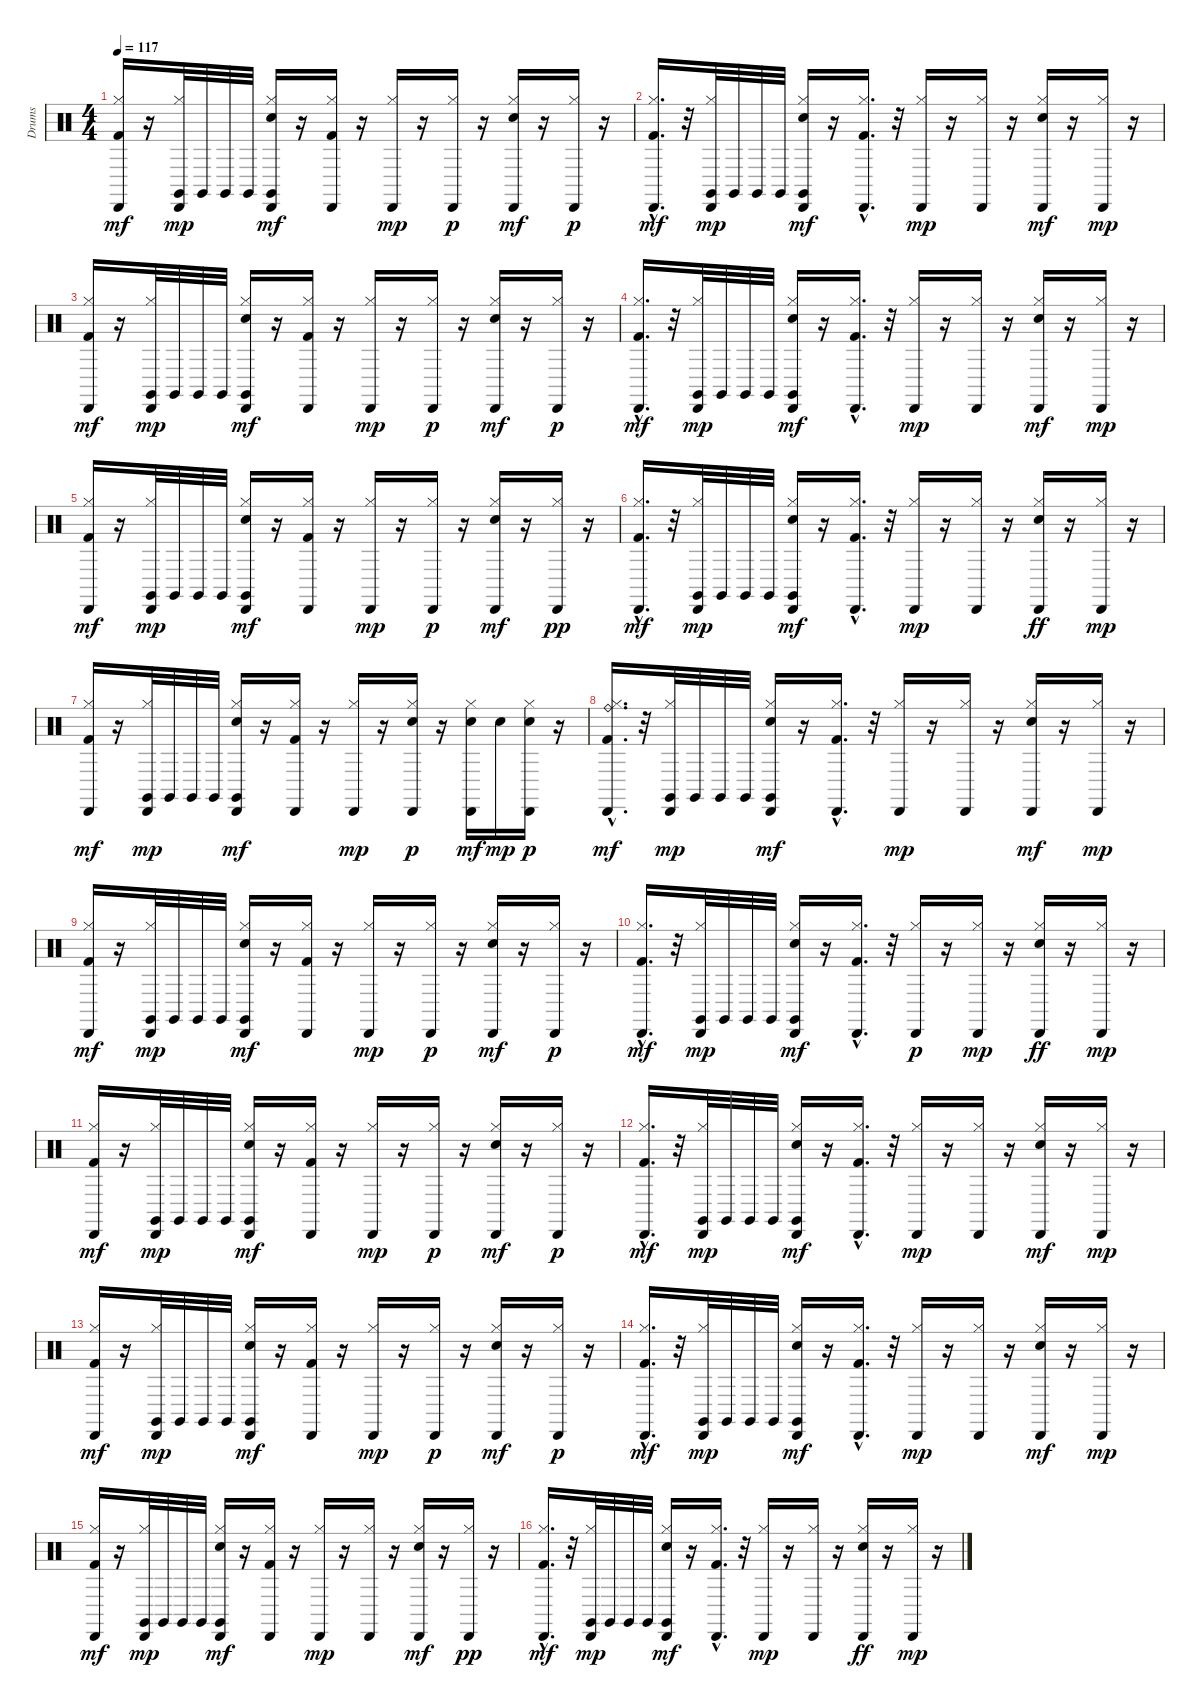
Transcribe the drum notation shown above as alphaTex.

\track ("Drums" "Drums") {instrument percussion}
\staff {score}
\articulation defaults
\ts (4 4)
\tempo 117
\clef neutral
\ks c
("Kick (hit) 2" "Hi-Hat (closed)" "Cabasa (hit)").16{dy mf} r.16 ("Hi-Hat (closed)" "Cabasa (hit)" "Claves (hit)").32{dy mp} "Claves (hit)".32 "Claves (hit)".32 "Claves (hit)".32 ("Electric Snare (hit)" "Hi-Hat (closed)" "Cabasa (hit)" "Claves (hit)").16{dy mf} r.16 ("Kick (hit) 2" "Hi-Hat (closed)" "Cabasa (hit)").16 r.16 ("Hi-Hat (closed)" "Cabasa (hit)").16{dy mp} r.16 ("Hi-Hat (closed)" "Cabasa (hit)").16{dy p} r.16 ("Electric Snare (hit)" "Hi-Hat (closed)" "Cabasa (hit)").16{dy mf} r.16 ("Hi-Hat (closed)" "Cabasa (hit)").16{dy p} r.16 |
("Kick (hit) 2"{hac} "Hi-Hat (closed)" "Cabasa (hit)").16{d dy mf} r.32 ("Hi-Hat (closed)" "Cabasa (hit)" "Claves (hit)").32{dy mp} "Claves (hit)".32 "Claves (hit)".32 "Claves (hit)".32 ("Electric Snare (hit)" "Hi-Hat (closed)" "Cabasa (hit)" "Claves (hit)").16{dy mf} r.16 ("Kick (hit) 2"{hac} "Hi-Hat (closed)" "Cabasa (hit)").16{d} r.32 ("Hi-Hat (closed)" "Cabasa (hit)").16{dy mp} r.16 ("Hi-Hat (closed)" "Cabasa (hit)").16 r.16 ("Electric Snare (hit)" "Hi-Hat (closed)" "Cabasa (hit)").16{dy mf} r.16 ("Hi-Hat (closed)" "Cabasa (hit)").16{dy mp} r.16 |
("Kick (hit) 2" "Hi-Hat (closed)" "Cabasa (hit)").16{dy mf} r.16 ("Hi-Hat (closed)" "Cabasa (hit)" "Claves (hit)").32{dy mp} "Claves (hit)".32 "Claves (hit)".32 "Claves (hit)".32 ("Electric Snare (hit)" "Hi-Hat (closed)" "Cabasa (hit)" "Claves (hit)").16{dy mf} r.16 ("Kick (hit) 2" "Hi-Hat (closed)" "Cabasa (hit)").16 r.16 ("Hi-Hat (closed)" "Cabasa (hit)").16{dy mp} r.16 ("Hi-Hat (closed)" "Cabasa (hit)").16{dy p} r.16 ("Electric Snare (hit)" "Hi-Hat (closed)" "Cabasa (hit)").16{dy mf} r.16 ("Hi-Hat (closed)" "Cabasa (hit)").16{dy p} r.16 |
("Kick (hit) 2"{hac} "Hi-Hat (closed)" "Cabasa (hit)").16{d dy mf} r.32 ("Hi-Hat (closed)" "Cabasa (hit)" "Claves (hit)").32{dy mp} "Claves (hit)".32 "Claves (hit)".32 "Claves (hit)".32 ("Electric Snare (hit)" "Hi-Hat (closed)" "Cabasa (hit)" "Claves (hit)").16{dy mf} r.16 ("Kick (hit) 2"{hac} "Hi-Hat (closed)" "Cabasa (hit)").16{d} r.32 ("Hi-Hat (closed)" "Cabasa (hit)").16{dy mp} r.16 ("Hi-Hat (closed)" "Cabasa (hit)").16 r.16 ("Electric Snare (hit)" "Hi-Hat (closed)" "Cabasa (hit)").16{dy mf} r.16 ("Hi-Hat (closed)" "Cabasa (hit)").16{dy mp} r.16 |
("Kick (hit) 2" "Hi-Hat (closed)" "Cabasa (hit)").16{dy mf} r.16 ("Hi-Hat (closed)" "Cabasa (hit)" "Claves (hit)").32{dy mp} "Claves (hit)".32 "Claves (hit)".32 "Claves (hit)".32 ("Electric Snare (hit)" "Hi-Hat (closed)" "Cabasa (hit)" "Claves (hit)").16{dy mf} r.16 ("Kick (hit) 2" "Hi-Hat (closed)" "Cabasa (hit)").16 r.16 ("Hi-Hat (closed)" "Cabasa (hit)").16{dy mp} r.16 ("Hi-Hat (closed)" "Cabasa (hit)").16{dy p} r.16 ("Electric Snare (hit)" "Hi-Hat (closed)" "Cabasa (hit)").16{dy mf} r.16 ("Hi-Hat (closed)" "Cabasa (hit)").16{dy pp} r.16 |
("Kick (hit) 2"{hac} "Hi-Hat (closed)" "Cabasa (hit)").16{d dy mf} r.32 ("Hi-Hat (closed)" "Cabasa (hit)" "Claves (hit)").32{dy mp} "Claves (hit)".32 "Claves (hit)".32 "Claves (hit)".32 ("Electric Snare (hit)" "Hi-Hat (closed)" "Cabasa (hit)" "Claves (hit)").16{dy mf} r.16 ("Kick (hit) 2"{hac} "Hi-Hat (closed)" "Cabasa (hit)").16{d} r.32 ("Hi-Hat (closed)" "Cabasa (hit)").16{dy mp} r.16 ("Hi-Hat (closed)" "Cabasa (hit)").16 r.16 ("Electric Snare (hit)" "Hi-Hat (closed)" "Cabasa (hit)").16{dy ff} r.16 ("Hi-Hat (closed)" "Cabasa (hit)").16{dy mp} r.16 |
("Kick (hit) 2" "Hi-Hat (closed)" "Cabasa (hit)").16{dy mf} r.16 ("Hi-Hat (closed)" "Cabasa (hit)" "Claves (hit)").32{dy mp} "Claves (hit)".32 "Claves (hit)".32 "Claves (hit)".32 ("Electric Snare (hit)" "Hi-Hat (closed)" "Cabasa (hit)" "Claves (hit)").16{dy mf} r.16 ("Kick (hit) 2" "Hi-Hat (closed)" "Cabasa (hit)").16 r.16 ("Hi-Hat (closed)" "Cabasa (hit)").16{dy mp} r.16 ("Electric Snare (hit)" "Hi-Hat (closed)" "Cabasa (hit)").16{dy p} r.16 ("Electric Snare (hit)" "Hi-Hat (closed)" "Cabasa (hit)").16{dy mf} "Electric Snare (hit)".16{dy mp} ("Electric Snare (hit)" "Hi-Hat (closed)" "Cabasa (hit)").16{dy p} r.16 |
("Kick (hit) 2"{hac} "Hi-Hat (closed)" "Ride (bell)" "Cabasa (hit)").16{d dy mf} r.32 ("Hi-Hat (closed)" "Cabasa (hit)" "Claves (hit)").32{dy mp} "Claves (hit)".32 "Claves (hit)".32 "Claves (hit)".32 ("Electric Snare (hit)" "Hi-Hat (closed)" "Cabasa (hit)" "Claves (hit)").16{dy mf} r.16 ("Kick (hit) 2"{hac} "Hi-Hat (closed)" "Cabasa (hit)").16{d} r.32 ("Hi-Hat (closed)" "Cabasa (hit)").16{dy mp} r.16 ("Hi-Hat (closed)" "Cabasa (hit)").16 r.16 ("Electric Snare (hit)" "Hi-Hat (closed)" "Cabasa (hit)").16{dy mf} r.16 ("Hi-Hat (closed)" "Cabasa (hit)").16{dy mp} r.16 |
("Kick (hit) 2" "Hi-Hat (closed)" "Cabasa (hit)").16{dy mf} r.16 ("Hi-Hat (closed)" "Cabasa (hit)" "Claves (hit)").32{dy mp} "Claves (hit)".32 "Claves (hit)".32 "Claves (hit)".32 ("Electric Snare (hit)" "Hi-Hat (closed)" "Cabasa (hit)" "Claves (hit)").16{dy mf} r.16 ("Kick (hit) 2" "Hi-Hat (closed)" "Cabasa (hit)").16 r.16 ("Hi-Hat (closed)" "Cabasa (hit)").16{dy mp} r.16 ("Hi-Hat (closed)" "Cabasa (hit)").16{dy p} r.16 ("Electric Snare (hit)" "Hi-Hat (closed)" "Cabasa (hit)").16{dy mf} r.16 ("Hi-Hat (closed)" "Cabasa (hit)").16{dy p} r.16 |
("Kick (hit) 2"{hac} "Hi-Hat (closed)" "Cabasa (hit)").16{d dy mf} r.32 ("Hi-Hat (closed)" "Cabasa (hit)" "Claves (hit)").32{dy mp} "Claves (hit)".32 "Claves (hit)".32 "Claves (hit)".32 ("Electric Snare (hit)" "Hi-Hat (closed)" "Cabasa (hit)" "Claves (hit)").16{dy mf} r.16 ("Kick (hit) 2"{hac} "Hi-Hat (closed)" "Cabasa (hit)").16{d} r.32 ("Hi-Hat (closed)" "Cabasa (hit)").16{dy p} r.16 ("Hi-Hat (closed)" "Cabasa (hit)").16{dy mp} r.16 ("Electric Snare (hit)" "Hi-Hat (closed)" "Cabasa (hit)").16{dy ff} r.16 ("Hi-Hat (closed)" "Cabasa (hit)").16{dy mp} r.16 |
("Kick (hit) 2" "Hi-Hat (closed)" "Cabasa (hit)").16{dy mf} r.16 ("Hi-Hat (closed)" "Cabasa (hit)" "Claves (hit)").32{dy mp} "Claves (hit)".32 "Claves (hit)".32 "Claves (hit)".32 ("Electric Snare (hit)" "Hi-Hat (closed)" "Cabasa (hit)" "Claves (hit)").16{dy mf} r.16 ("Kick (hit) 2" "Hi-Hat (closed)" "Cabasa (hit)").16 r.16 ("Hi-Hat (closed)" "Cabasa (hit)").16{dy mp} r.16 ("Hi-Hat (closed)" "Cabasa (hit)").16{dy p} r.16 ("Electric Snare (hit)" "Hi-Hat (closed)" "Cabasa (hit)").16{dy mf} r.16 ("Hi-Hat (closed)" "Cabasa (hit)").16{dy p} r.16 |
("Kick (hit) 2"{hac} "Hi-Hat (closed)" "Cabasa (hit)").16{d dy mf} r.32 ("Hi-Hat (closed)" "Cabasa (hit)" "Claves (hit)").32{dy mp} "Claves (hit)".32 "Claves (hit)".32 "Claves (hit)".32 ("Electric Snare (hit)" "Hi-Hat (closed)" "Cabasa (hit)" "Claves (hit)").16{dy mf} r.16 ("Kick (hit) 2"{hac} "Hi-Hat (closed)" "Cabasa (hit)").16{d} r.32 ("Hi-Hat (closed)" "Cabasa (hit)").16{dy mp} r.16 ("Hi-Hat (closed)" "Cabasa (hit)").16 r.16 ("Electric Snare (hit)" "Hi-Hat (closed)" "Cabasa (hit)").16{dy mf} r.16 ("Hi-Hat (closed)" "Cabasa (hit)").16{dy mp} r.16 |
("Kick (hit) 2" "Hi-Hat (closed)" "Cabasa (hit)").16{dy mf} r.16 ("Hi-Hat (closed)" "Cabasa (hit)" "Claves (hit)").32{dy mp} "Claves (hit)".32 "Claves (hit)".32 "Claves (hit)".32 ("Electric Snare (hit)" "Hi-Hat (closed)" "Cabasa (hit)" "Claves (hit)").16{dy mf} r.16 ("Kick (hit) 2" "Hi-Hat (closed)" "Cabasa (hit)").16 r.16 ("Hi-Hat (closed)" "Cabasa (hit)").16{dy mp} r.16 ("Hi-Hat (closed)" "Cabasa (hit)").16{dy p} r.16 ("Electric Snare (hit)" "Hi-Hat (closed)" "Cabasa (hit)").16{dy mf} r.16 ("Hi-Hat (closed)" "Cabasa (hit)").16{dy p} r.16 |
("Kick (hit) 2"{hac} "Hi-Hat (closed)" "Cabasa (hit)").16{d dy mf} r.32 ("Hi-Hat (closed)" "Cabasa (hit)" "Claves (hit)").32{dy mp} "Claves (hit)".32 "Claves (hit)".32 "Claves (hit)".32 ("Electric Snare (hit)" "Hi-Hat (closed)" "Cabasa (hit)" "Claves (hit)").16{dy mf} r.16 ("Kick (hit) 2"{hac} "Hi-Hat (closed)" "Cabasa (hit)").16{d} r.32 ("Hi-Hat (closed)" "Cabasa (hit)").16{dy mp} r.16 ("Hi-Hat (closed)" "Cabasa (hit)").16 r.16 ("Electric Snare (hit)" "Hi-Hat (closed)" "Cabasa (hit)").16{dy mf} r.16 ("Hi-Hat (closed)" "Cabasa (hit)").16{dy mp} r.16 |
("Kick (hit) 2" "Hi-Hat (closed)" "Cabasa (hit)").16{dy mf} r.16 ("Hi-Hat (closed)" "Cabasa (hit)" "Claves (hit)").32{dy mp} "Claves (hit)".32 "Claves (hit)".32 "Claves (hit)".32 ("Electric Snare (hit)" "Hi-Hat (closed)" "Cabasa (hit)" "Claves (hit)").16{dy mf} r.16 ("Kick (hit) 2" "Hi-Hat (closed)" "Cabasa (hit)").16 r.16 ("Hi-Hat (closed)" "Cabasa (hit)").16{dy mp} r.16 ("Hi-Hat (closed)" "Cabasa (hit)").16 r.16 ("Electric Snare (hit)" "Hi-Hat (closed)" "Cabasa (hit)").16{dy mf} r.16 ("Hi-Hat (closed)" "Cabasa (hit)").16{dy pp} r.16 |
("Kick (hit) 2"{hac} "Hi-Hat (closed)" "Cabasa (hit)").16{d dy mf} r.32 ("Hi-Hat (closed)" "Cabasa (hit)" "Claves (hit)").32{dy mp} "Claves (hit)".32 "Claves (hit)".32 "Claves (hit)".32 ("Electric Snare (hit)" "Hi-Hat (closed)" "Cabasa (hit)" "Claves (hit)").16{dy mf} r.16 ("Kick (hit) 2"{hac} "Hi-Hat (closed)" "Cabasa (hit)").16{d} r.32 ("Hi-Hat (closed)" "Cabasa (hit)").16{dy mp} r.16 ("Hi-Hat (closed)" "Cabasa (hit)").16 r.16 ("Electric Snare (hit)" "Hi-Hat (closed)" "Cabasa (hit)").16{dy ff} r.16 ("Hi-Hat (closed)" "Cabasa (hit)").16{dy mp} r.16
